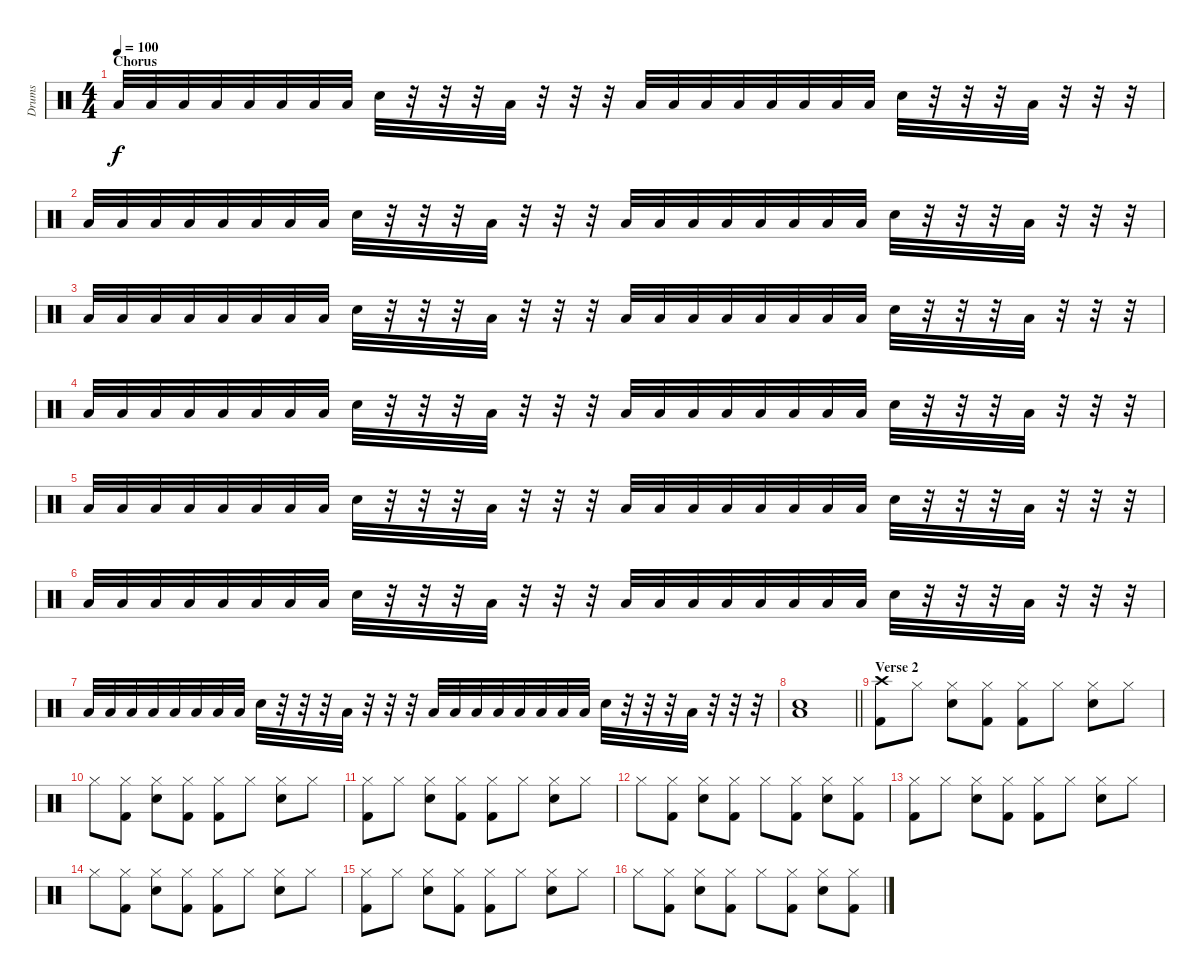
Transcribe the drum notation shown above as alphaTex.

\track ("Drums" "Drums") {instrument percussion}
\staff {score}
\articulation defaults
\ts (4 4)
\section ("" "Chorus")
\tempo 100
\clef neutral
\ks c "Low Tom (hit)".32{dy f} "Low Tom (hit)".32 "Low Tom (hit)".32 "Low Tom (hit)".32 "Low Tom (hit)".32 "Low Tom (hit)".32 "Low Tom (hit)".32 "Low Tom (hit)".32 "Snare (hit) 2".32
r.32 r.32 r.32 "Low Tom (hit)".32 r.32 r.32 r.32 "Low Tom (hit)".32 "Low Tom (hit)".32 "Low Tom (hit)".32 "Low Tom (hit)".32 "Low Tom (hit)".32 "Low Tom (hit)".32 "Low Tom (hit)".32 "Low Tom (hit)".32 "Snare (hit) 2".32 r.32 r.32 r.32 "Low Tom (hit)".32 r.32 r.32 r.32 |
"Low Tom (hit)".32 "Low Tom (hit)".32 "Low Tom (hit)".32 "Low Tom (hit)".32 "Low Tom (hit)".32 "Low Tom (hit)".32 "Low Tom (hit)".32 "Low Tom (hit)".32 "Snare (hit) 2".32 r.32 r.32 r.32 "Low Tom (hit)".32 r.32 r.32 r.32 "Low Tom (hit)".32 "Low Tom (hit)".32 "Low Tom (hit)".32 "Low Tom (hit)".32 "Low Tom (hit)".32 "Low Tom (hit)".32 "Low Tom (hit)".32 "Low Tom (hit)".32 "Snare (hit) 2".32 r.32 r.32 r.32 "Low Tom (hit)".32 r.32 r.32 r.32 |
"Low Tom (hit)".32 "Low Tom (hit)".32 "Low Tom (hit)".32 "Low Tom (hit)".32 "Low Tom (hit)".32 "Low Tom (hit)".32 "Low Tom (hit)".32 "Low Tom (hit)".32 "Snare (hit) 2".32 r.32 r.32 r.32 "Low Tom (hit)".32 r.32 r.32 r.32 "Low Tom (hit)".32 "Low Tom (hit)".32 "Low Tom (hit)".32 "Low Tom (hit)".32 "Low Tom (hit)".32 "Low Tom (hit)".32 "Low Tom (hit)".32 "Low Tom (hit)".32 "Snare (hit) 2".32 r.32 r.32 r.32 "Low Tom (hit)".32 r.32 r.32 r.32 |
"Low Tom (hit)".32 "Low Tom (hit)".32 "Low Tom (hit)".32 "Low Tom (hit)".32 "Low Tom (hit)".32 "Low Tom (hit)".32 "Low Tom (hit)".32 "Low Tom (hit)".32 "Snare (hit) 2".32 r.32 r.32 r.32 "Low Tom (hit)".32 r.32 r.32 r.32 "Low Tom (hit)".32 "Low Tom (hit)".32 "Low Tom (hit)".32 "Low Tom (hit)".32 "Low Tom (hit)".32 "Low Tom (hit)".32 "Low Tom (hit)".32 "Low Tom (hit)".32 "Snare (hit) 2".32 r.32 r.32 r.32 "Low Tom (hit)".32 r.32 r.32 r.32 |
"Low Tom (hit)".32 "Low Tom (hit)".32 "Low Tom (hit)".32 "Low Tom (hit)".32 "Low Tom (hit)".32 "Low Tom (hit)".32 "Low Tom (hit)".32 "Low Tom (hit)".32 "Snare (hit) 2".32 r.32 r.32 r.32 "Low Tom (hit)".32 r.32 r.32 r.32 "Low Tom (hit)".32 "Low Tom (hit)".32 "Low Tom (hit)".32 "Low Tom (hit)".32 "Low Tom (hit)".32 "Low Tom (hit)".32 "Low Tom (hit)".32 "Low Tom (hit)".32 "Snare (hit) 2".32 r.32 r.32 r.32 "Low Tom (hit)".32 r.32 r.32 r.32 |
"Low Tom (hit)".32 "Low Tom (hit)".32 "Low Tom (hit)".32 "Low Tom (hit)".32 "Low Tom (hit)".32 "Low Tom (hit)".32 "Low Tom (hit)".32 "Low Tom (hit)".32 "Snare (hit) 2".32 r.32 r.32 r.32 "Low Tom (hit)".32 r.32 r.32 r.32 "Low Tom (hit)".32 "Low Tom (hit)".32 "Low Tom (hit)".32 "Low Tom (hit)".32 "Low Tom (hit)".32 "Low Tom (hit)".32 "Low Tom (hit)".32 "Low Tom (hit)".32 "Snare (hit) 2".32 r.32 r.32 r.32 "Low Tom (hit)".32 r.32 r.32 r.32 |
"Low Tom (hit)".32 "Low Tom (hit)".32 "Low Tom (hit)".32 "Low Tom (hit)".32 "Low Tom (hit)".32 "Low Tom (hit)".32 "Low Tom (hit)".32 "Low Tom (hit)".32 "Snare (hit) 2".32 r.32 r.32 r.32 "Low Tom (hit)".32 r.32 r.32 r.32 "Low Tom (hit)".32 "Low Tom (hit)".32 "Low Tom (hit)".32 "Low Tom (hit)".32 "Low Tom (hit)".32 "Low Tom (hit)".32 "Low Tom (hit)".32 "Low Tom (hit)".32 "Snare (hit) 2".32 r.32 r.32 r.32 "Low Tom (hit)".32 r.32 r.32 r.32 |
\barLineRight lightlight
("Low Tom (hit)" "Snare (hit) 2").1 |
\section ("" "Verse 2")
("Crash high (hit)" "Kick (hit) 2").8 "Hi-Hat (closed)".8 ("Hi-Hat (closed)" "Snare (hit) 2").8 ("Hi-Hat (closed)" "Kick (hit) 2").8 ("Hi-Hat (closed)" "Kick (hit) 2").8 "Hi-Hat (closed)".8 ("Hi-Hat (closed)" "Snare (hit) 2").8 "Hi-Hat (closed)".8 |
"Hi-Hat (closed)".8 ("Hi-Hat (closed)" "Kick (hit) 2").8 ("Hi-Hat (closed)" "Snare (hit) 2").8 ("Hi-Hat (closed)" "Kick (hit) 2").8 ("Hi-Hat (closed)" "Kick (hit) 2").8 "Hi-Hat (closed)".8 ("Hi-Hat (closed)" "Snare (hit) 2").8 "Hi-Hat (closed)".8 |
("Hi-Hat (closed)" "Kick (hit) 2").8 "Hi-Hat (closed)".8 ("Hi-Hat (closed)" "Snare (hit) 2").8 ("Hi-Hat (closed)" "Kick (hit) 2").8 ("Hi-Hat (closed)" "Kick (hit) 2").8 "Hi-Hat (closed)".8 ("Hi-Hat (closed)" "Snare (hit) 2").8 "Hi-Hat (closed)".8 |
"Hi-Hat (closed)".8 ("Hi-Hat (closed)" "Kick (hit) 2").8 ("Hi-Hat (closed)" "Snare (hit) 2").8 ("Hi-Hat (closed)" "Kick (hit) 2").8 "Hi-Hat (closed)".8 ("Hi-Hat (closed)" "Kick (hit) 2").8 ("Hi-Hat (closed)" "Snare (hit) 2").8 ("Hi-Hat (closed)" "Kick (hit) 2").8 |
("Hi-Hat (closed)" "Kick (hit) 2").8 "Hi-Hat (closed)".8 ("Hi-Hat (closed)" "Snare (hit) 2").8 ("Hi-Hat (closed)" "Kick (hit) 2").8 ("Hi-Hat (closed)" "Kick (hit) 2").8 "Hi-Hat (closed)".8 ("Hi-Hat (closed)" "Snare (hit) 2").8 "Hi-Hat (closed)".8 |
"Hi-Hat (closed)".8 ("Hi-Hat (closed)" "Kick (hit) 2").8 ("Hi-Hat (closed)" "Snare (hit) 2").8 ("Hi-Hat (closed)" "Kick (hit) 2").8 ("Hi-Hat (closed)" "Kick (hit) 2").8 "Hi-Hat (closed)".8 ("Hi-Hat (closed)" "Snare (hit) 2").8 "Hi-Hat (closed)".8 |
("Hi-Hat (closed)" "Kick (hit) 2").8 "Hi-Hat (closed)".8 ("Hi-Hat (closed)" "Snare (hit) 2").8 ("Hi-Hat (closed)" "Kick (hit) 2").8 ("Hi-Hat (closed)" "Kick (hit) 2").8 "Hi-Hat (closed)".8 ("Hi-Hat (closed)" "Snare (hit) 2").8 "Hi-Hat (closed)".8 |
"Hi-Hat (closed)".8 ("Hi-Hat (closed)" "Kick (hit) 2").8 ("Hi-Hat (closed)" "Snare (hit) 2").8 ("Hi-Hat (closed)" "Kick (hit) 2").8 "Hi-Hat (closed)".8 ("Hi-Hat (closed)" "Kick (hit) 2").8 ("Hi-Hat (closed)" "Snare (hit) 2").8 ("Hi-Hat (closed)" "Kick (hit) 2").8
